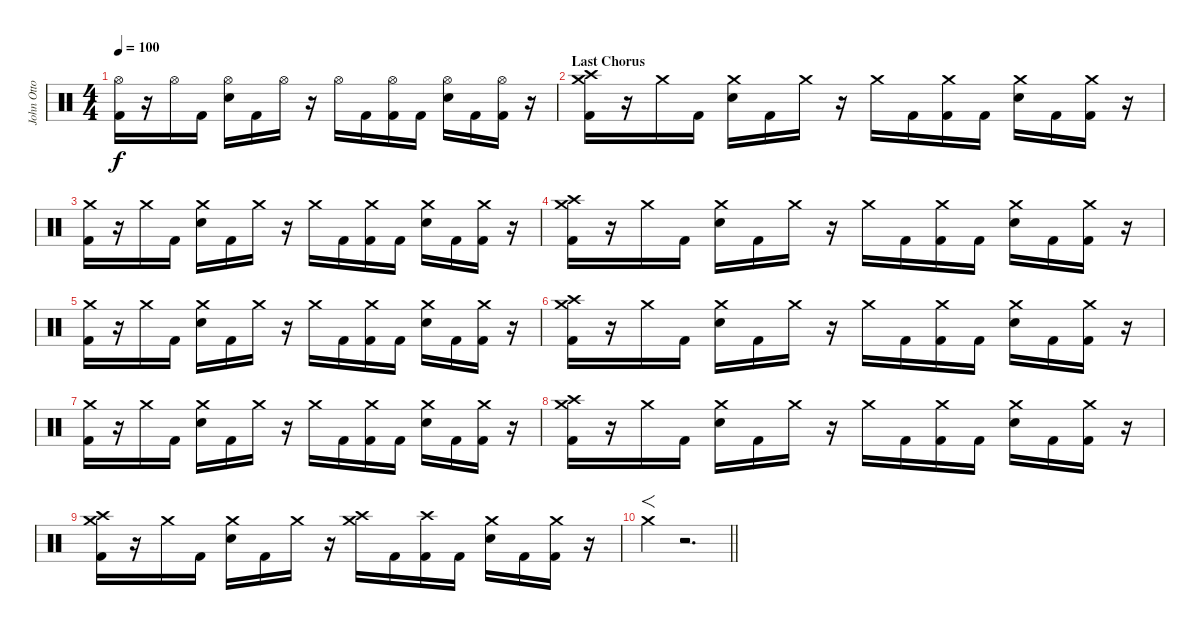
\track ("John Otto - Drums" "John Otto ") {instrument percussion}
\staff {score}
\articulation defaults
\ts (4 4)
\tempo 100
\clef neutral
\ks c
("Hi-Hat (open)" "Kick (hit) 2").16{dy f} r.16 "Hi-Hat (open)".16 "Kick (hit) 2".16 ("Hi-Hat (open)" "Snare (hit) 2").16 "Kick (hit) 2".16 "Hi-Hat (open)".16 r.16 "Hi-Hat (open)".16 "Kick (hit) 2".16 ("Hi-Hat (open)" "Kick (hit) 2").16 "Kick (hit) 2".16 ("Hi-Hat (open)" "Snare (hit) 2").16 "Kick (hit) 2".16 ("Hi-Hat (open)" "Kick (hit) 2").16 r.16 |
\section ("" "Last Chorus")
("Crash medium (hit)" "Crash high (hit)" "Kick (hit) 2").16 r.16 "Crash medium (hit)".16 "Kick (hit) 2".16 ("Crash medium (hit)" "Snare (hit) 2").16 "Kick (hit) 2".16 "Crash medium (hit)".16 r.16 "Crash medium (hit)".16 "Kick (hit) 2".16 ("Crash medium (hit)" "Kick (hit) 2").16 "Kick (hit) 2".16 ("Crash medium (hit)" "Snare (hit) 2").16 "Kick (hit) 2".16 ("Crash medium (hit)" "Kick (hit) 2").16 r.16 |
("Crash medium (hit)" "Kick (hit) 2").16 r.16 "Crash medium (hit)".16 "Kick (hit) 2".16 ("Crash medium (hit)" "Snare (hit) 2").16 "Kick (hit) 2".16 "Crash medium (hit)".16 r.16 "Crash medium (hit)".16 "Kick (hit) 2".16 ("Crash medium (hit)" "Kick (hit) 2").16 "Kick (hit) 2".16 ("Crash medium (hit)" "Snare (hit) 2").16 "Kick (hit) 2".16 ("Crash medium (hit)" "Kick (hit) 2").16 r.16 |
("Crash medium (hit)" "Crash high (hit)" "Kick (hit) 2").16 r.16 "Crash medium (hit)".16 "Kick (hit) 2".16 ("Crash medium (hit)" "Snare (hit) 2").16 "Kick (hit) 2".16 "Crash medium (hit)".16 r.16 "Crash medium (hit)".16 "Kick (hit) 2".16 ("Crash medium (hit)" "Kick (hit) 2").16 "Kick (hit) 2".16 ("Crash medium (hit)" "Snare (hit) 2").16 "Kick (hit) 2".16 ("Crash medium (hit)" "Kick (hit) 2").16 r.16 |
("Crash medium (hit)" "Kick (hit) 2").16 r.16 "Crash medium (hit)".16 "Kick (hit) 2".16 ("Crash medium (hit)" "Snare (hit) 2").16 "Kick (hit) 2".16 "Crash medium (hit)".16 r.16 "Crash medium (hit)".16 "Kick (hit) 2".16 ("Crash medium (hit)" "Kick (hit) 2").16 "Kick (hit) 2".16 ("Crash medium (hit)" "Snare (hit) 2").16 "Kick (hit) 2".16 ("Crash medium (hit)" "Kick (hit) 2").16 r.16 |
("Crash medium (hit)" "Crash high (hit)" "Kick (hit) 2").16 r.16 "Crash medium (hit)".16 "Kick (hit) 2".16 ("Crash medium (hit)" "Snare (hit) 2").16 "Kick (hit) 2".16 "Crash medium (hit)".16 r.16 "Crash medium (hit)".16 "Kick (hit) 2".16 ("Crash medium (hit)" "Kick (hit) 2").16 "Kick (hit) 2".16 ("Crash medium (hit)" "Snare (hit) 2").16 "Kick (hit) 2".16 ("Crash medium (hit)" "Kick (hit) 2").16 r.16 |
("Crash medium (hit)" "Kick (hit) 2").16 r.16 "Crash medium (hit)".16 "Kick (hit) 2".16 ("Crash medium (hit)" "Snare (hit) 2").16 "Kick (hit) 2".16 "Crash medium (hit)".16 r.16 "Crash medium (hit)".16 "Kick (hit) 2".16 ("Crash medium (hit)" "Kick (hit) 2").16 "Kick (hit) 2".16 ("Crash medium (hit)" "Snare (hit) 2").16 "Kick (hit) 2".16 ("Crash medium (hit)" "Kick (hit) 2").16 r.16 |
("Crash medium (hit)" "Crash high (hit)" "Kick (hit) 2").16 r.16 "Crash medium (hit)".16 "Kick (hit) 2".16 ("Crash medium (hit)" "Snare (hit) 2").16 "Kick (hit) 2".16 "Crash medium (hit)".16 r.16 "Crash medium (hit)".16 "Kick (hit) 2".16 ("Crash medium (hit)" "Kick (hit) 2").16 "Kick (hit) 2".16 ("Crash medium (hit)" "Snare (hit) 2").16 "Kick (hit) 2".16 ("Crash medium (hit)" "Kick (hit) 2").16 r.16 |
("Crash medium (hit)" "Crash high (hit)" "Kick (hit) 2").16 r.16 "Crash medium (hit)".16 "Kick (hit) 2".16 ("Crash medium (hit)" "Snare (hit) 2").16 "Kick (hit) 2".16 "Crash medium (hit)".16 r.16 ("Crash medium (hit)" "Crash high (hit)").16 "Kick (hit) 2".16 ("Crash high (hit)" "Kick (hit) 2").16 "Kick (hit) 2".16 ("Crash medium (hit)" "Snare (hit) 2").16 "Kick (hit) 2".16 ("Crash medium (hit)" "Kick (hit) 2").16 r.16 |
\barLineRight lightlight "Crash medium (hit)".4{f}
r.2{d}
